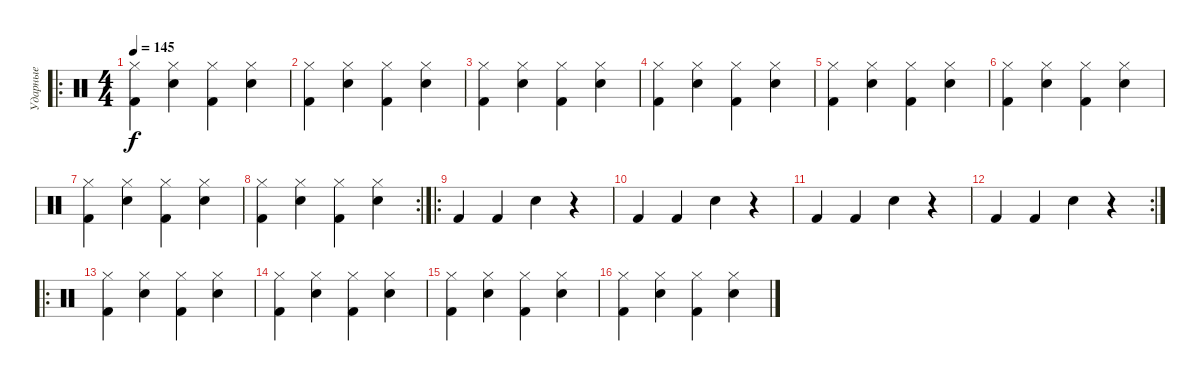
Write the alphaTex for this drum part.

\track ("Ударные" "Ударные") {solo instrument percussion}
\staff {score}
\articulation defaults
\ro
\ts (4 4)
\tempo 145
\clef neutral
\ks c
("Hi-Hat (closed)" "Kick (hit) 2").4{dy f} ("Hi-Hat (closed)" "Snare (hit) 2").4 ("Hi-Hat (closed)" "Kick (hit) 2").4 ("Hi-Hat (closed)" "Snare (hit) 2").4 |
("Hi-Hat (closed)" "Kick (hit) 2").4 ("Hi-Hat (closed)" "Snare (hit) 2").4 ("Hi-Hat (closed)" "Kick (hit) 2").4 ("Hi-Hat (closed)" "Snare (hit) 2").4 |
("Hi-Hat (closed)" "Kick (hit) 2").4 ("Hi-Hat (closed)" "Snare (hit) 2").4 ("Hi-Hat (closed)" "Kick (hit) 2").4 ("Hi-Hat (closed)" "Snare (hit) 2").4 |
("Hi-Hat (closed)" "Kick (hit) 2").4 ("Hi-Hat (closed)" "Snare (hit) 2").4 ("Hi-Hat (closed)" "Kick (hit) 2").4 ("Hi-Hat (closed)" "Snare (hit) 2").4 |
("Hi-Hat (closed)" "Kick (hit) 2").4 ("Hi-Hat (closed)" "Snare (hit) 2").4 ("Hi-Hat (closed)" "Kick (hit) 2").4 ("Hi-Hat (closed)" "Snare (hit) 2").4 |
("Hi-Hat (closed)" "Kick (hit) 2").4 ("Hi-Hat (closed)" "Snare (hit) 2").4 ("Hi-Hat (closed)" "Kick (hit) 2").4 ("Hi-Hat (closed)" "Snare (hit) 2").4 |
("Hi-Hat (closed)" "Kick (hit) 2").4 ("Hi-Hat (closed)" "Snare (hit) 2").4 ("Hi-Hat (closed)" "Kick (hit) 2").4 ("Hi-Hat (closed)" "Snare (hit) 2").4 |
\rc 2
("Hi-Hat (closed)" "Kick (hit) 2").4 ("Hi-Hat (closed)" "Snare (hit) 2").4 ("Hi-Hat (closed)" "Kick (hit) 2").4 ("Hi-Hat (closed)" "Snare (hit) 2").4 |
\ro "Kick (hit) 2".4 "Kick (hit) 2".4 "Snare (hit) 2".4
r.4 |
"Kick (hit) 2".4 "Kick (hit) 2".4 "Snare (hit) 2".4 r.4 |
"Kick (hit) 2".4 "Kick (hit) 2".4 "Snare (hit) 2".4 r.4 |
\rc 2 "Kick (hit) 2".4 "Kick (hit) 2".4 "Snare (hit) 2".4
r.4 |
\ro
("Hi-Hat (closed)" "Kick (hit) 2").4 ("Hi-Hat (closed)" "Snare (hit) 2").4 ("Hi-Hat (closed)" "Kick (hit) 2").4 ("Hi-Hat (closed)" "Snare (hit) 2").4 |
("Hi-Hat (closed)" "Kick (hit) 2").4 ("Hi-Hat (closed)" "Snare (hit) 2").4 ("Hi-Hat (closed)" "Kick (hit) 2").4 ("Hi-Hat (closed)" "Snare (hit) 2").4 |
("Hi-Hat (closed)" "Kick (hit) 2").4 ("Hi-Hat (closed)" "Snare (hit) 2").4 ("Hi-Hat (closed)" "Kick (hit) 2").4 ("Hi-Hat (closed)" "Snare (hit) 2").4 |
("Hi-Hat (closed)" "Kick (hit) 2").4 ("Hi-Hat (closed)" "Snare (hit) 2").4 ("Hi-Hat (closed)" "Kick (hit) 2").4 ("Hi-Hat (closed)" "Snare (hit) 2").4
